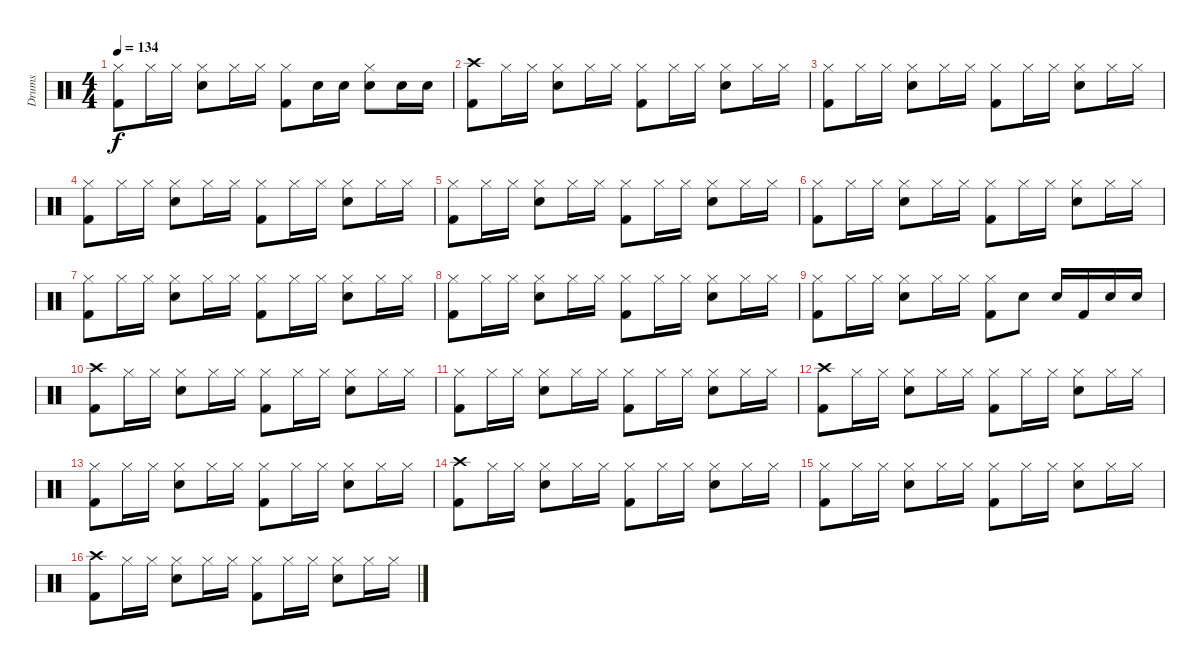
\track ("Drums" "Drums") {instrument percussion}
\staff {score}
\articulation defaults
\ts (4 4)
\tempo 134
\clef neutral
\ks c
("Kick (hit) 2" "Hi-Hat (closed)").8{dy f} "Hi-Hat (closed)".16 "Hi-Hat (closed)".16 ("Snare (hit) 2" "Hi-Hat (closed)").8 "Hi-Hat (closed)".16 "Hi-Hat (closed)".16 ("Kick (hit) 2" "Hi-Hat (closed)").8 "Snare (hit) 2".16 "Snare (hit) 2".16 ("Snare (hit) 2" "Hi-Hat (closed)").8 "Snare (hit) 2".16 "Snare (hit) 2".16 |
("Kick (hit) 2" "Crash high (hit)").8 "Hi-Hat (closed)".16 "Hi-Hat (closed)".16 ("Snare (hit) 2" "Hi-Hat (closed)").8 "Hi-Hat (closed)".16 "Hi-Hat (closed)".16 ("Kick (hit) 2" "Hi-Hat (closed)").8 "Hi-Hat (closed)".16 "Hi-Hat (closed)".16 ("Snare (hit) 2" "Hi-Hat (closed)").8 "Hi-Hat (closed)".16 "Hi-Hat (closed)".16 |
("Kick (hit) 2" "Hi-Hat (closed)").8 "Hi-Hat (closed)".16 "Hi-Hat (closed)".16 ("Snare (hit) 2" "Hi-Hat (closed)").8 "Hi-Hat (closed)".16 "Hi-Hat (closed)".16 ("Kick (hit) 2" "Hi-Hat (closed)").8 "Hi-Hat (closed)".16 "Hi-Hat (closed)".16 ("Snare (hit) 2" "Hi-Hat (closed)").8 "Hi-Hat (closed)".16 "Hi-Hat (closed)".16 |
("Kick (hit) 2" "Hi-Hat (closed)").8 "Hi-Hat (closed)".16 "Hi-Hat (closed)".16 ("Snare (hit) 2" "Hi-Hat (closed)").8 "Hi-Hat (closed)".16 "Hi-Hat (closed)".16 ("Kick (hit) 2" "Hi-Hat (closed)").8 "Hi-Hat (closed)".16 "Hi-Hat (closed)".16 ("Snare (hit) 2" "Hi-Hat (closed)").8 "Hi-Hat (closed)".16 "Hi-Hat (closed)".16 |
("Kick (hit) 2" "Hi-Hat (closed)").8 "Hi-Hat (closed)".16 "Hi-Hat (closed)".16 ("Snare (hit) 2" "Hi-Hat (closed)").8 "Hi-Hat (closed)".16 "Hi-Hat (closed)".16 ("Kick (hit) 2" "Hi-Hat (closed)").8 "Hi-Hat (closed)".16 "Hi-Hat (closed)".16 ("Snare (hit) 2" "Hi-Hat (closed)").8 "Hi-Hat (closed)".16 "Hi-Hat (closed)".16 |
("Kick (hit) 2" "Hi-Hat (closed)").8 "Hi-Hat (closed)".16 "Hi-Hat (closed)".16 ("Snare (hit) 2" "Hi-Hat (closed)").8 "Hi-Hat (closed)".16 "Hi-Hat (closed)".16 ("Kick (hit) 2" "Hi-Hat (closed)").8 "Hi-Hat (closed)".16 "Hi-Hat (closed)".16 ("Snare (hit) 2" "Hi-Hat (closed)").8 "Hi-Hat (closed)".16 "Hi-Hat (closed)".16 |
("Kick (hit) 2" "Hi-Hat (closed)").8 "Hi-Hat (closed)".16 "Hi-Hat (closed)".16 ("Snare (hit) 2" "Hi-Hat (closed)").8 "Hi-Hat (closed)".16 "Hi-Hat (closed)".16 ("Kick (hit) 2" "Hi-Hat (closed)").8 "Hi-Hat (closed)".16 "Hi-Hat (closed)".16 ("Snare (hit) 2" "Hi-Hat (closed)").8 "Hi-Hat (closed)".16 "Hi-Hat (closed)".16 |
("Kick (hit) 2" "Hi-Hat (closed)").8 "Hi-Hat (closed)".16 "Hi-Hat (closed)".16 ("Snare (hit) 2" "Hi-Hat (closed)").8 "Hi-Hat (closed)".16 "Hi-Hat (closed)".16 ("Kick (hit) 2" "Hi-Hat (closed)").8 "Hi-Hat (closed)".16 "Hi-Hat (closed)".16 ("Snare (hit) 2" "Hi-Hat (closed)").8 "Hi-Hat (closed)".16 "Hi-Hat (closed)".16 |
("Kick (hit) 2" "Hi-Hat (closed)").8 "Hi-Hat (closed)".16 "Hi-Hat (closed)".16 ("Snare (hit) 2" "Hi-Hat (closed)").8 "Hi-Hat (closed)".16 "Hi-Hat (closed)".16 ("Kick (hit) 2" "Hi-Hat (closed)").8 "Snare (hit) 2".8 "Snare (hit) 2".16 "Kick (hit) 2".16 "Snare (hit) 2".16 "Snare (hit) 2".16 |
("Kick (hit) 2" "Crash high (hit)").8 "Hi-Hat (closed)".16 "Hi-Hat (closed)".16 ("Snare (hit) 2" "Hi-Hat (closed)").8 "Hi-Hat (closed)".16 "Hi-Hat (closed)".16 ("Kick (hit) 2" "Hi-Hat (closed)").8 "Hi-Hat (closed)".16 "Hi-Hat (closed)".16 ("Snare (hit) 2" "Hi-Hat (closed)").8 "Hi-Hat (closed)".16 "Hi-Hat (closed)".16 |
("Kick (hit) 2" "Hi-Hat (closed)").8 "Hi-Hat (closed)".16 "Hi-Hat (closed)".16 ("Snare (hit) 2" "Hi-Hat (closed)").8 "Hi-Hat (closed)".16 "Hi-Hat (closed)".16 ("Kick (hit) 2" "Hi-Hat (closed)").8 "Hi-Hat (closed)".16 "Hi-Hat (closed)".16 ("Snare (hit) 2" "Hi-Hat (closed)").8 "Hi-Hat (closed)".16 "Hi-Hat (closed)".16 |
("Kick (hit) 2" "Crash high (hit)").8 "Hi-Hat (closed)".16 "Hi-Hat (closed)".16 ("Snare (hit) 2" "Hi-Hat (closed)").8 "Hi-Hat (closed)".16 "Hi-Hat (closed)".16 ("Kick (hit) 2" "Hi-Hat (closed)").8 "Hi-Hat (closed)".16 "Hi-Hat (closed)".16 ("Snare (hit) 2" "Hi-Hat (closed)").8 "Hi-Hat (closed)".16 "Hi-Hat (closed)".16 |
("Kick (hit) 2" "Hi-Hat (closed)").8 "Hi-Hat (closed)".16 "Hi-Hat (closed)".16 ("Snare (hit) 2" "Hi-Hat (closed)").8 "Hi-Hat (closed)".16 "Hi-Hat (closed)".16 ("Kick (hit) 2" "Hi-Hat (closed)").8 "Hi-Hat (closed)".16 "Hi-Hat (closed)".16 ("Snare (hit) 2" "Hi-Hat (closed)").8 "Hi-Hat (closed)".16 "Hi-Hat (closed)".16 |
("Kick (hit) 2" "Crash high (hit)").8 "Hi-Hat (closed)".16 "Hi-Hat (closed)".16 ("Snare (hit) 2" "Hi-Hat (closed)").8 "Hi-Hat (closed)".16 "Hi-Hat (closed)".16 ("Kick (hit) 2" "Hi-Hat (closed)").8 "Hi-Hat (closed)".16 "Hi-Hat (closed)".16 ("Snare (hit) 2" "Hi-Hat (closed)").8 "Hi-Hat (closed)".16 "Hi-Hat (closed)".16 |
("Kick (hit) 2" "Hi-Hat (closed)").8 "Hi-Hat (closed)".16 "Hi-Hat (closed)".16 ("Snare (hit) 2" "Hi-Hat (closed)").8 "Hi-Hat (closed)".16 "Hi-Hat (closed)".16 ("Kick (hit) 2" "Hi-Hat (closed)").8 "Hi-Hat (closed)".16 "Hi-Hat (closed)".16 ("Snare (hit) 2" "Hi-Hat (closed)").8 "Hi-Hat (closed)".16 "Hi-Hat (closed)".16 |
("Kick (hit) 2" "Crash high (hit)").8 "Hi-Hat (closed)".16 "Hi-Hat (closed)".16 ("Snare (hit) 2" "Hi-Hat (closed)").8 "Hi-Hat (closed)".16 "Hi-Hat (closed)".16 ("Kick (hit) 2" "Hi-Hat (closed)").8 "Hi-Hat (closed)".16 "Hi-Hat (closed)".16 ("Snare (hit) 2" "Hi-Hat (closed)").8 "Hi-Hat (closed)".16 "Hi-Hat (closed)".16
